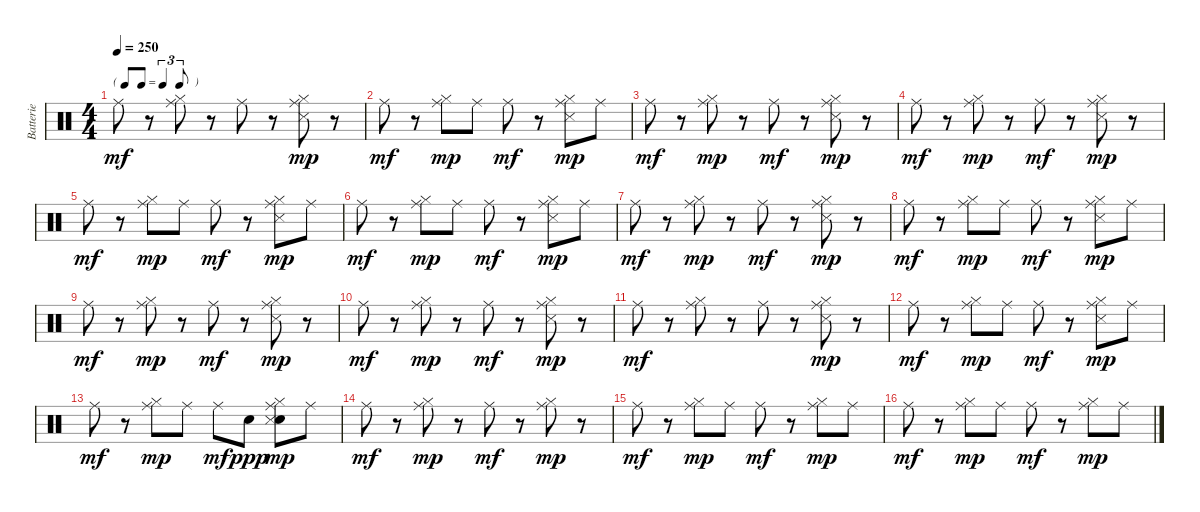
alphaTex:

\track ("Batterie" "Batterie") {instrument percussion}
\staff {score}
\articulation defaults
\ts (4 4)
\tf triplet8th
\tempo 250
\clef neutral
\ks c "Ride (middle)".8{dy mf}
r.8 ("Hi-Hat (closed)" "Ride (middle)").8 r.8 "Ride (middle)".8 r.8 ("Hi-Hat (closed)" "Snare (side stick) 3" "Ride (middle)").8{dy mp} r.8 |
"Ride (middle)".8{dy mf} r.8 ("Hi-Hat (closed)" "Ride (middle)").8{dy mp} "Ride (middle)".8 "Ride (middle)".8{dy mf} r.8 ("Hi-Hat (closed)" "Snare (side stick) 3" "Ride (middle)").8{dy mp} "Ride (middle)".8 |
"Ride (middle)".8{dy mf} r.8 ("Hi-Hat (closed)" "Ride (middle)").8{dy mp} r.8 "Ride (middle)".8{dy mf} r.8 ("Hi-Hat (closed)" "Snare (side stick) 3" "Ride (middle)").8{dy mp} r.8 |
"Ride (middle)".8{dy mf} r.8 ("Hi-Hat (closed)" "Ride (middle)").8{dy mp} r.8 "Ride (middle)".8{dy mf} r.8 ("Hi-Hat (closed)" "Snare (side stick) 3" "Ride (middle)").8{dy mp} r.8 |
"Ride (middle)".8{dy mf} r.8 ("Hi-Hat (closed)" "Ride (middle)").8{dy mp} "Ride (middle)".8 "Ride (middle)".8{dy mf} r.8 ("Hi-Hat (closed)" "Snare (side stick) 3" "Ride (middle)").8{dy mp} "Ride (middle)".8 |
"Ride (middle)".8{dy mf} r.8 ("Hi-Hat (closed)" "Ride (middle)").8{dy mp} "Ride (middle)".8 "Ride (middle)".8{dy mf} r.8 ("Hi-Hat (closed)" "Snare (side stick) 3" "Ride (middle)").8{dy mp} "Ride (middle)".8 |
"Ride (middle)".8{dy mf} r.8 ("Hi-Hat (closed)" "Ride (middle)").8{dy mp} r.8 "Ride (middle)".8{dy mf} r.8 ("Hi-Hat (closed)" "Snare (side stick) 3" "Ride (middle)").8{dy mp} r.8 |
"Ride (middle)".8{dy mf} r.8 ("Hi-Hat (closed)" "Ride (middle)").8{dy mp} "Ride (middle)".8 "Ride (middle)".8{dy mf} r.8 ("Hi-Hat (closed)" "Snare (side stick) 3" "Ride (middle)").8{dy mp} "Ride (middle)".8 |
"Ride (middle)".8{dy mf} r.8 ("Hi-Hat (closed)" "Ride (middle)").8{dy mp} r.8 "Ride (middle)".8{dy mf} r.8 ("Hi-Hat (closed)" "Snare (side stick) 3" "Ride (middle)").8{dy mp} r.8 |
"Ride (middle)".8{dy mf} r.8 ("Hi-Hat (closed)" "Ride (middle)").8{dy mp} r.8 "Ride (middle)".8{dy mf} r.8 ("Hi-Hat (closed)" "Snare (side stick) 3" "Ride (middle)").8{dy mp} r.8 |
"Ride (middle)".8{dy mf} r.8 ("Hi-Hat (closed)" "Ride (middle)").8 r.8 "Ride (middle)".8 r.8 ("Hi-Hat (closed)" "Snare (side stick) 3" "Ride (middle)").8{dy mp} r.8 |
"Ride (middle)".8{dy mf} r.8 ("Hi-Hat (closed)" "Ride (middle)").8{dy mp} "Ride (middle)".8 "Ride (middle)".8{dy mf} r.8 ("Hi-Hat (closed)" "Snare (side stick) 3" "Ride (middle)").8{dy mp} "Ride (middle)".8 |
"Ride (middle)".8{dy mf} r.8 ("Hi-Hat (closed)" "Ride (middle)").8{dy mp} "Ride (middle)".8 "Ride (middle)".8{dy mf} "Snare (hit) 2".8{dy ppp} ("Snare (hit) 2" "Hi-Hat (closed)" "Snare (side stick) 3" "Ride (middle)").8{dy mp} "Ride (middle)".8 |
"Ride (middle)".8{dy mf} r.8 ("Hi-Hat (closed)" "Ride (middle)").8{dy mp} r.8 "Ride (middle)".8{dy mf} r.8 ("Hi-Hat (closed)" "Ride (middle)").8{dy mp} r.8 |
"Ride (middle)".8{dy mf} r.8 ("Hi-Hat (closed)" "Ride (middle)").8{dy mp} "Ride (middle)".8 "Ride (middle)".8{dy mf} r.8 ("Hi-Hat (closed)" "Ride (middle)").8{dy mp} "Ride (middle)".8 |
"Ride (middle)".8{dy mf} r.8 ("Hi-Hat (closed)" "Ride (middle)").8{dy mp} "Ride (middle)".8 "Ride (middle)".8{dy mf} r.8 ("Hi-Hat (closed)" "Ride (middle)").8{dy mp} "Ride (middle)".8
